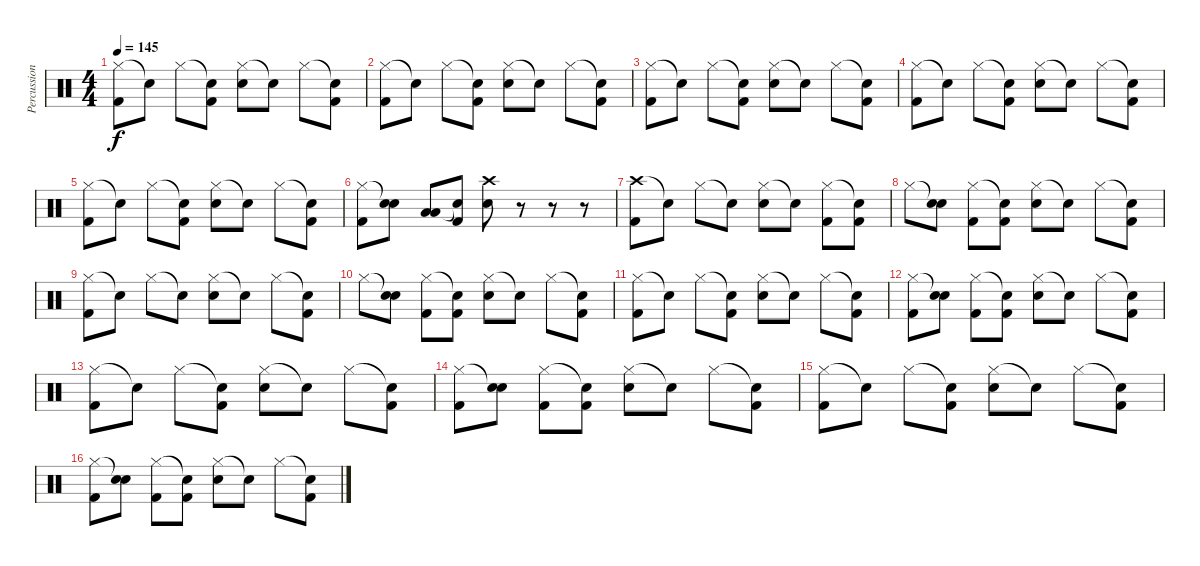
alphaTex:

\track ("Percussion" "Percussion") {instrument percussion}
\staff {score}
\articulation defaults
\ts (4 4)
\tempo 145
\clef neutral
\ks c
("Hi-Hat (closed)" "Kick (hit) 2").8{dy f} "Snare (hit)"{t}.8 "Hi-Hat (closed)".8 ("Snare (hit)"{t} "Kick (hit) 2").8 ("Hi-Hat (closed)" "Electric Snare (hit)").8 "Snare (hit)"{t}.8 "Hi-Hat (closed)".8 ("Snare (hit)"{t} "Kick (hit) 2").8 |
("Hi-Hat (closed)" "Kick (hit) 2").8 "Snare (hit)"{t}.8 "Hi-Hat (closed)".8 ("Snare (hit)"{t} "Kick (hit) 2").8 ("Hi-Hat (closed)" "Electric Snare (hit)").8 "Snare (hit)"{t}.8 "Hi-Hat (closed)".8 ("Snare (hit)"{t} "Kick (hit) 2").8 |
("Hi-Hat (closed)" "Kick (hit) 2").8 "Snare (hit)"{t}.8 "Hi-Hat (closed)".8 ("Snare (hit)"{t} "Kick (hit) 2").8 ("Hi-Hat (closed)" "Electric Snare (hit)").8 "Snare (hit)"{t}.8 "Hi-Hat (closed)".8 ("Snare (hit)"{t} "Kick (hit) 2").8 |
("Hi-Hat (closed)" "Kick (hit) 2").8 "Snare (hit)"{t}.8 "Hi-Hat (closed)".8 ("Snare (hit)"{t} "Kick (hit) 2").8 ("Hi-Hat (closed)" "Electric Snare (hit)").8 "Snare (hit)"{t}.8 "Hi-Hat (closed)".8 ("Snare (hit)"{t} "Kick (hit) 2").8 |
("Hi-Hat (closed)" "Kick (hit) 2").8 "Snare (hit)"{t}.8 "Hi-Hat (closed)".8 ("Snare (hit)"{t} "Kick (hit) 2").8 ("Hi-Hat (closed)" "Electric Snare (hit)").8 "Snare (hit)"{t}.8 "Hi-Hat (closed)".8 ("Snare (hit)"{t} "Kick (hit) 2").8 |
("Hi-Hat (closed)" "Kick (hit) 2").8 ("Snare (hit)"{t} "Electric Snare (hit)").8 ("Low Floor Tom (hit)" "Low Tom (hit)").8 ("Snare (hit)"{t} "Kick (hit) 2").8 ("Crash high (hit)" "Electric Snare (hit)").8 r.8 r.8 r.8 |
("Crash high (hit)" "Kick (hit) 2").8 "Snare (hit)"{t}.8 "Hi-Hat (closed)".8 "Snare (hit)"{t}.8 ("Hi-Hat (closed)" "Electric Snare (hit)").8 "Snare (hit)"{t}.8 ("Hi-Hat (closed)" "Kick (hit) 2").8 ("Snare (hit)"{t} "Kick (hit) 2").8 |
"Hi-Hat (closed)".8 ("Snare (hit)"{t} "Electric Snare (hit)").8 ("Hi-Hat (closed)" "Kick (hit) 2").8 ("Snare (hit)"{t} "Kick (hit) 2").8 ("Hi-Hat (closed)" "Electric Snare (hit)").8 "Snare (hit)"{t}.8 "Hi-Hat (closed)".8 ("Snare (hit)"{t} "Kick (hit) 2").8 |
("Hi-Hat (closed)" "Kick (hit) 2").8 "Snare (hit)"{t}.8 "Hi-Hat (closed)".8 "Snare (hit)"{t}.8 ("Hi-Hat (closed)" "Electric Snare (hit)").8 "Snare (hit)"{t}.8 "Hi-Hat (closed)".8 ("Snare (hit)"{t} "Kick (hit) 2").8 |
"Hi-Hat (closed)".8 ("Snare (hit)"{t} "Electric Snare (hit)").8 ("Hi-Hat (closed)" "Kick (hit) 2").8 ("Snare (hit)"{t} "Kick (hit) 2").8 ("Hi-Hat (closed)" "Electric Snare (hit)").8 "Snare (hit)"{t}.8 "Hi-Hat (closed)".8 ("Snare (hit)"{t} "Kick (hit) 2").8 |
("Hi-Hat (closed)" "Kick (hit) 2").8 "Snare (hit)"{t}.8 "Hi-Hat (closed)".8 ("Snare (hit)"{t} "Kick (hit) 2").8 ("Hi-Hat (closed)" "Electric Snare (hit)").8 "Snare (hit)"{t}.8 "Hi-Hat (closed)".8 ("Snare (hit)"{t} "Kick (hit) 2").8 |
("Hi-Hat (closed)" "Kick (hit) 2").8 ("Snare (hit)"{t} "Electric Snare (hit)").8 ("Hi-Hat (closed)" "Kick (hit) 2").8 ("Snare (hit)"{t} "Kick (hit) 2").8 ("Hi-Hat (closed)" "Electric Snare (hit)").8 "Snare (hit)"{t}.8 "Hi-Hat (closed)".8 ("Snare (hit)"{t} "Kick (hit) 2").8 |
("Hi-Hat (closed)" "Kick (hit) 2").8 "Snare (hit)"{t}.8 "Hi-Hat (closed)".8 ("Snare (hit)"{t} "Kick (hit) 2").8 ("Hi-Hat (closed)" "Electric Snare (hit)").8 "Snare (hit)"{t}.8 "Hi-Hat (closed)".8 ("Snare (hit)"{t} "Kick (hit) 2").8 |
("Hi-Hat (closed)" "Kick (hit) 2").8 ("Snare (hit)"{t} "Electric Snare (hit)").8 ("Hi-Hat (closed)" "Kick (hit) 2").8 ("Snare (hit)"{t} "Kick (hit) 2").8 ("Hi-Hat (closed)" "Electric Snare (hit)").8 "Snare (hit)"{t}.8 "Hi-Hat (closed)".8 ("Snare (hit)"{t} "Kick (hit) 2").8 |
("Hi-Hat (closed)" "Kick (hit) 2").8 "Snare (hit)"{t}.8 "Hi-Hat (closed)".8 ("Snare (hit)"{t} "Kick (hit) 2").8 ("Hi-Hat (closed)" "Electric Snare (hit)").8 "Snare (hit)"{t}.8 "Hi-Hat (closed)".8 ("Snare (hit)"{t} "Kick (hit) 2").8 |
("Hi-Hat (closed)" "Kick (hit) 2").8 ("Snare (hit)"{t} "Electric Snare (hit)").8 ("Hi-Hat (closed)" "Kick (hit) 2").8 ("Snare (hit)"{t} "Kick (hit) 2").8 ("Hi-Hat (closed)" "Electric Snare (hit)").8 "Snare (hit)"{t}.8 "Hi-Hat (closed)".8 ("Snare (hit)"{t} "Kick (hit) 2").8
